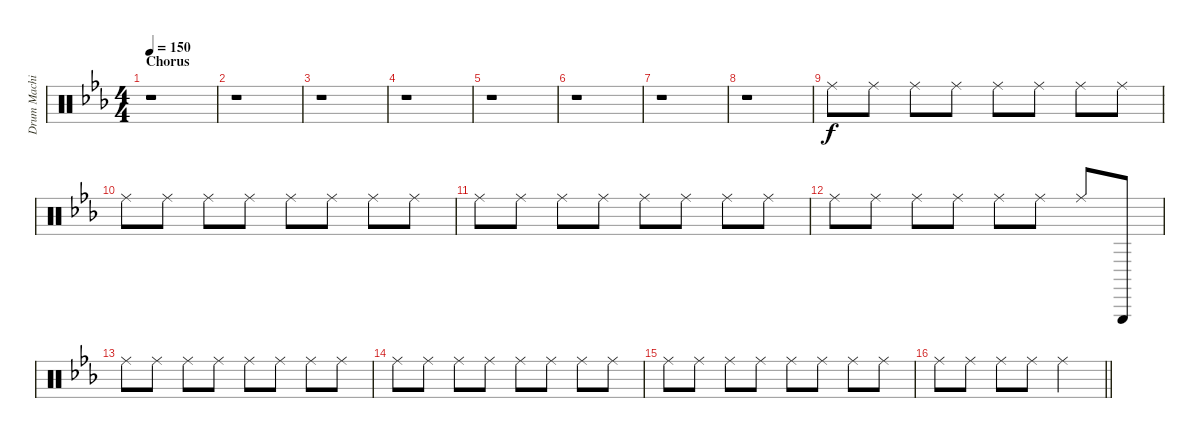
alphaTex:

\track ("Drum Machine" "Drum Machi") {instrument percussion}
\staff {score}
\articulation defaults
\ts (4 4)
\section ("" "Chorus")
\tempo 150
\clef neutral
\ks eb
r.1{dy f} |
r.1 |
r.1 |
r.1 |
r.1 |
r.1 |
r.1 |
r.1 |
"Ride (middle)".8 "Ride (middle)".8 "Ride (middle)".8 "Ride (middle)".8 "Ride (middle)".8 "Ride (middle)".8 "Ride (middle)".8 "Ride (middle)".8 |
"Ride (middle)".8 "Ride (middle)".8 "Ride (middle)".8 "Ride (middle)".8 "Ride (middle)".8 "Ride (middle)".8 "Ride (middle)".8 "Ride (middle)".8 |
"Ride (middle)".8 "Ride (middle)".8 "Ride (middle)".8 "Ride (middle)".8 "Ride (middle)".8 "Ride (middle)".8 "Ride (middle)".8 "Ride (middle)".8 |
"Ride (middle)".8 "Ride (middle)".8 "Ride (middle)".8 "Ride (middle)".8 "Ride (middle)".8 "Ride (middle)".8 "Ride (middle)".8 "Triangle (hit)".8 |
"Ride (middle)".8 "Ride (middle)".8 "Ride (middle)".8 "Ride (middle)".8 "Ride (middle)".8 "Ride (middle)".8 "Ride (middle)".8 "Ride (middle)".8 |
"Ride (middle)".8 "Ride (middle)".8 "Ride (middle)".8 "Ride (middle)".8 "Ride (middle)".8 "Ride (middle)".8 "Ride (middle)".8 "Ride (middle)".8 |
"Ride (middle)".8 "Ride (middle)".8 "Ride (middle)".8 "Ride (middle)".8 "Ride (middle)".8 "Ride (middle)".8 "Ride (middle)".8 "Ride (middle)".8 |
\barLineRight lightlight "Ride (middle)".8 "Ride (middle)".8 "Ride (middle)".8 "Ride (middle)".8 "Ride (middle)".2
